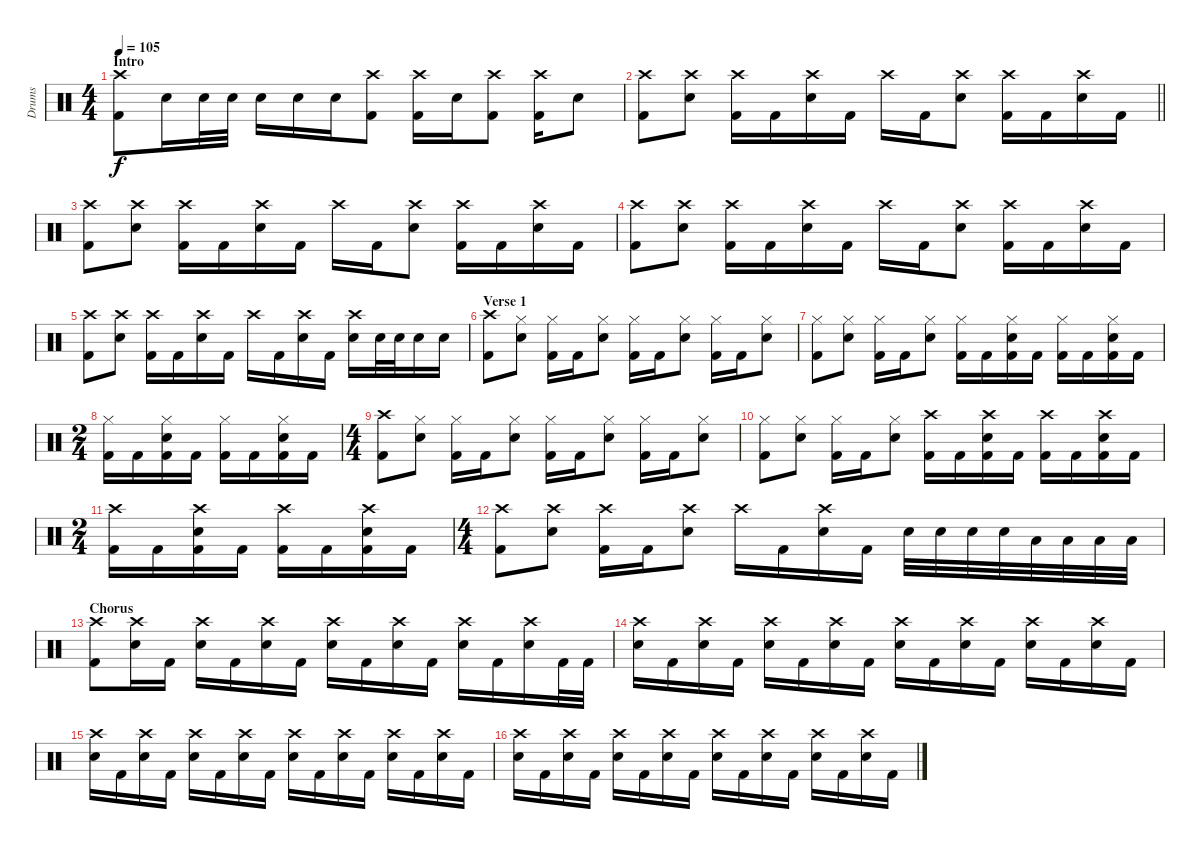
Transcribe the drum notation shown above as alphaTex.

\track ("Drums" "Drums") {instrument percussion}
\staff {score}
\articulation defaults
\ts (4 4)
\section ("" "Intro")
\tempo 105
\clef neutral
\ks c
("Crash high (hit)" "Kick (hit) 2").8{dy f} "Electric Snare (hit)".16 "Electric Snare (hit)".32 "Electric Snare (hit)".32 "Electric Snare (hit)".16 "Electric Snare (hit)".16 "Electric Snare (hit)".16 ("Crash high (hit)" "Kick (hit) 2").8 ("Crash high (hit)" "Kick (hit) 2").16 "Electric Snare (hit)".16 ("Crash high (hit)" "Kick (hit) 2").8 ("Crash high (hit)" "Kick (hit) 2").16 "Electric Snare (hit)".8 |
\barLineRight lightlight
("Crash high (hit)" "Kick (hit) 2").8 ("Crash high (hit)" "Electric Snare (hit)").8 ("Crash high (hit)" "Kick (hit) 2").16 "Kick (hit) 2".16 ("Crash high (hit)" "Electric Snare (hit)").16 "Kick (hit) 2".16 "Crash high (hit)".16 "Kick (hit) 2".16 ("Crash high (hit)" "Electric Snare (hit)").8 ("Crash high (hit)" "Kick (hit) 2").16 "Kick (hit) 2".16 ("Crash high (hit)" "Electric Snare (hit)").16 "Kick (hit) 2".16 |
("Crash high (hit)" "Kick (hit) 2").8 ("Crash high (hit)" "Electric Snare (hit)").8 ("Crash high (hit)" "Kick (hit) 2").16 "Kick (hit) 2".16 ("Crash high (hit)" "Electric Snare (hit)").16 "Kick (hit) 2".16 "Crash high (hit)".16 "Kick (hit) 2".16 ("Crash high (hit)" "Electric Snare (hit)").8 ("Crash high (hit)" "Kick (hit) 2").16 "Kick (hit) 2".16 ("Crash high (hit)" "Electric Snare (hit)").16 "Kick (hit) 2".16 |
("Crash high (hit)" "Kick (hit) 2").8 ("Crash high (hit)" "Electric Snare (hit)").8 ("Crash high (hit)" "Kick (hit) 2").16 "Kick (hit) 2".16 ("Crash high (hit)" "Electric Snare (hit)").16 "Kick (hit) 2".16 "Crash high (hit)".16 "Kick (hit) 2".16 ("Crash high (hit)" "Electric Snare (hit)").8 ("Crash high (hit)" "Kick (hit) 2").16 "Kick (hit) 2".16 ("Crash high (hit)" "Electric Snare (hit)").16 "Kick (hit) 2".16 |
("Crash high (hit)" "Kick (hit) 2").8 ("Crash high (hit)" "Electric Snare (hit)").8 ("Crash high (hit)" "Kick (hit) 2").16 "Kick (hit) 2".16 ("Crash high (hit)" "Electric Snare (hit)").16 "Kick (hit) 2".16 "Crash high (hit)".16 "Kick (hit) 2".16 ("Crash high (hit)" "Electric Snare (hit)").16 "Kick (hit) 2".16 ("Crash high (hit)" "Electric Snare (hit)").16 "Electric Snare (hit)".32 "Electric Snare (hit)".32 "Electric Snare (hit)".16 "Electric Snare (hit)".16 |
\section ("" "Verse 1")
("Crash high (hit)" "Kick (hit) 2").8 ("Hi-Hat (closed)" "Electric Snare (hit)").8 ("Hi-Hat (closed)" "Kick (hit) 2").16 "Kick (hit) 2".16 ("Hi-Hat (closed)" "Electric Snare (hit)").8 ("Hi-Hat (closed)" "Kick (hit) 2").16 "Kick (hit) 2".16 ("Hi-Hat (closed)" "Electric Snare (hit)").8 ("Hi-Hat (closed)" "Kick (hit) 2").16 "Kick (hit) 2".16 ("Hi-Hat (closed)" "Electric Snare (hit)").8 |
("Hi-Hat (closed)" "Kick (hit) 2").8 ("Hi-Hat (closed)" "Electric Snare (hit)").8 ("Hi-Hat (closed)" "Kick (hit) 2").16 "Kick (hit) 2".16 ("Hi-Hat (closed)" "Electric Snare (hit)").8 ("Hi-Hat (closed)" "Kick (hit) 2").16 "Kick (hit) 2".16 ("Hi-Hat (closed)" "Electric Snare (hit)" "Kick (hit) 2").16 "Kick (hit) 2".16 ("Hi-Hat (closed)" "Kick (hit) 2").16 "Kick (hit) 2".16 ("Hi-Hat (closed)" "Electric Snare (hit)" "Kick (hit) 2").16 "Kick (hit) 2".16 |
\ts (2 4)
("Hi-Hat (closed)" "Kick (hit) 2").16 "Kick (hit) 2".16 ("Hi-Hat (closed)" "Electric Snare (hit)" "Kick (hit) 2").16 "Kick (hit) 2".16 ("Hi-Hat (closed)" "Kick (hit) 2").16 "Kick (hit) 2".16 ("Hi-Hat (closed)" "Electric Snare (hit)" "Kick (hit) 2").16 "Kick (hit) 2".16 |
\ts (4 4)
("Crash high (hit)" "Kick (hit) 2").8 ("Hi-Hat (closed)" "Electric Snare (hit)").8 ("Hi-Hat (closed)" "Kick (hit) 2").16 "Kick (hit) 2".16 ("Hi-Hat (closed)" "Electric Snare (hit)").8 ("Hi-Hat (closed)" "Kick (hit) 2").16 "Kick (hit) 2".16 ("Hi-Hat (closed)" "Electric Snare (hit)").8 ("Hi-Hat (closed)" "Kick (hit) 2").16 "Kick (hit) 2".16 ("Hi-Hat (closed)" "Electric Snare (hit)").8 |
("Hi-Hat (closed)" "Kick (hit) 2").8 ("Hi-Hat (closed)" "Electric Snare (hit)").8 ("Hi-Hat (closed)" "Kick (hit) 2").16 "Kick (hit) 2".16 ("Hi-Hat (closed)" "Electric Snare (hit)").8 ("Crash high (hit)" "Kick (hit) 2").16 "Kick (hit) 2".16 ("Crash high (hit)" "Electric Snare (hit)" "Kick (hit) 2").16 "Kick (hit) 2".16 ("Crash high (hit)" "Kick (hit) 2").16 "Kick (hit) 2".16 ("Crash high (hit)" "Electric Snare (hit)" "Kick (hit) 2").16 "Kick (hit) 2".16 |
\ts (2 4)
("Crash high (hit)" "Kick (hit) 2").16 "Kick (hit) 2".16 ("Crash high (hit)" "Electric Snare (hit)" "Kick (hit) 2").16 "Kick (hit) 2".16 ("Crash high (hit)" "Kick (hit) 2").16 "Kick (hit) 2".16 ("Crash high (hit)" "Electric Snare (hit)" "Kick (hit) 2").16 "Kick (hit) 2".16 |
\ts (4 4)
("Crash high (hit)" "Kick (hit) 2").8 ("Crash high (hit)" "Electric Snare (hit)").8 ("Crash high (hit)" "Kick (hit) 2").16 "Kick (hit) 2".16 ("Crash high (hit)" "Electric Snare (hit)").8 "Crash high (hit)".16 "Kick (hit) 2".16 ("Crash high (hit)" "Electric Snare (hit)").16 "Kick (hit) 2".16 "Electric Snare (hit)".32 "Electric Snare (hit)".32 "Electric Snare (hit)".32 "Electric Snare (hit)".32 "Low Tom (hit)".32 "Low Tom (hit)".32 "Low Tom (hit)".32 "Low Tom (hit)".32 |
\section ("" "Chorus ")
("Crash high (hit)" "Kick (hit) 2").8 ("Crash high (hit)" "Electric Snare (hit)").16 "Kick (hit) 2".16 ("Crash high (hit)" "Electric Snare (hit)").16 "Kick (hit) 2".16 ("Crash high (hit)" "Electric Snare (hit)").16 "Kick (hit) 2".16 ("Crash high (hit)" "Electric Snare (hit)").16 "Kick (hit) 2".16 ("Crash high (hit)" "Electric Snare (hit)").16 "Kick (hit) 2".16 ("Crash high (hit)" "Electric Snare (hit)").16 "Kick (hit) 2".16 ("Crash high (hit)" "Electric Snare (hit)").16 "Kick (hit) 2".32 "Kick (hit) 2".32 |
("Crash high (hit)" "Electric Snare (hit)").16 "Kick (hit) 2".16 ("Crash high (hit)" "Electric Snare (hit)").16 "Kick (hit) 2".16 ("Crash high (hit)" "Electric Snare (hit)").16 "Kick (hit) 2".16 ("Crash high (hit)" "Electric Snare (hit)").16 "Kick (hit) 2".16 ("Crash high (hit)" "Electric Snare (hit)").16 "Kick (hit) 2".16 ("Crash high (hit)" "Electric Snare (hit)").16 "Kick (hit) 2".16 ("Crash high (hit)" "Electric Snare (hit)").16 "Kick (hit) 2".16 ("Crash high (hit)" "Electric Snare (hit)").16 "Kick (hit) 2".16 |
("Crash high (hit)" "Electric Snare (hit)").16 "Kick (hit) 2".16 ("Crash high (hit)" "Electric Snare (hit)").16 "Kick (hit) 2".16 ("Crash high (hit)" "Electric Snare (hit)").16 "Kick (hit) 2".16 ("Crash high (hit)" "Electric Snare (hit)").16 "Kick (hit) 2".16 ("Crash high (hit)" "Electric Snare (hit)").16 "Kick (hit) 2".16 ("Crash high (hit)" "Electric Snare (hit)").16 "Kick (hit) 2".16 ("Crash high (hit)" "Electric Snare (hit)").16 "Kick (hit) 2".16 ("Crash high (hit)" "Electric Snare (hit)").16 "Kick (hit) 2".16 |
("Crash high (hit)" "Electric Snare (hit)").16 "Kick (hit) 2".16 ("Crash high (hit)" "Electric Snare (hit)").16 "Kick (hit) 2".16 ("Crash high (hit)" "Electric Snare (hit)").16 "Kick (hit) 2".16 ("Crash high (hit)" "Electric Snare (hit)").16 "Kick (hit) 2".16 ("Crash high (hit)" "Electric Snare (hit)").16 "Kick (hit) 2".16 ("Crash high (hit)" "Electric Snare (hit)").16 "Kick (hit) 2".16 ("Crash high (hit)" "Electric Snare (hit)").16 "Kick (hit) 2".16 ("Crash high (hit)" "Electric Snare (hit)").16 "Kick (hit) 2".16
